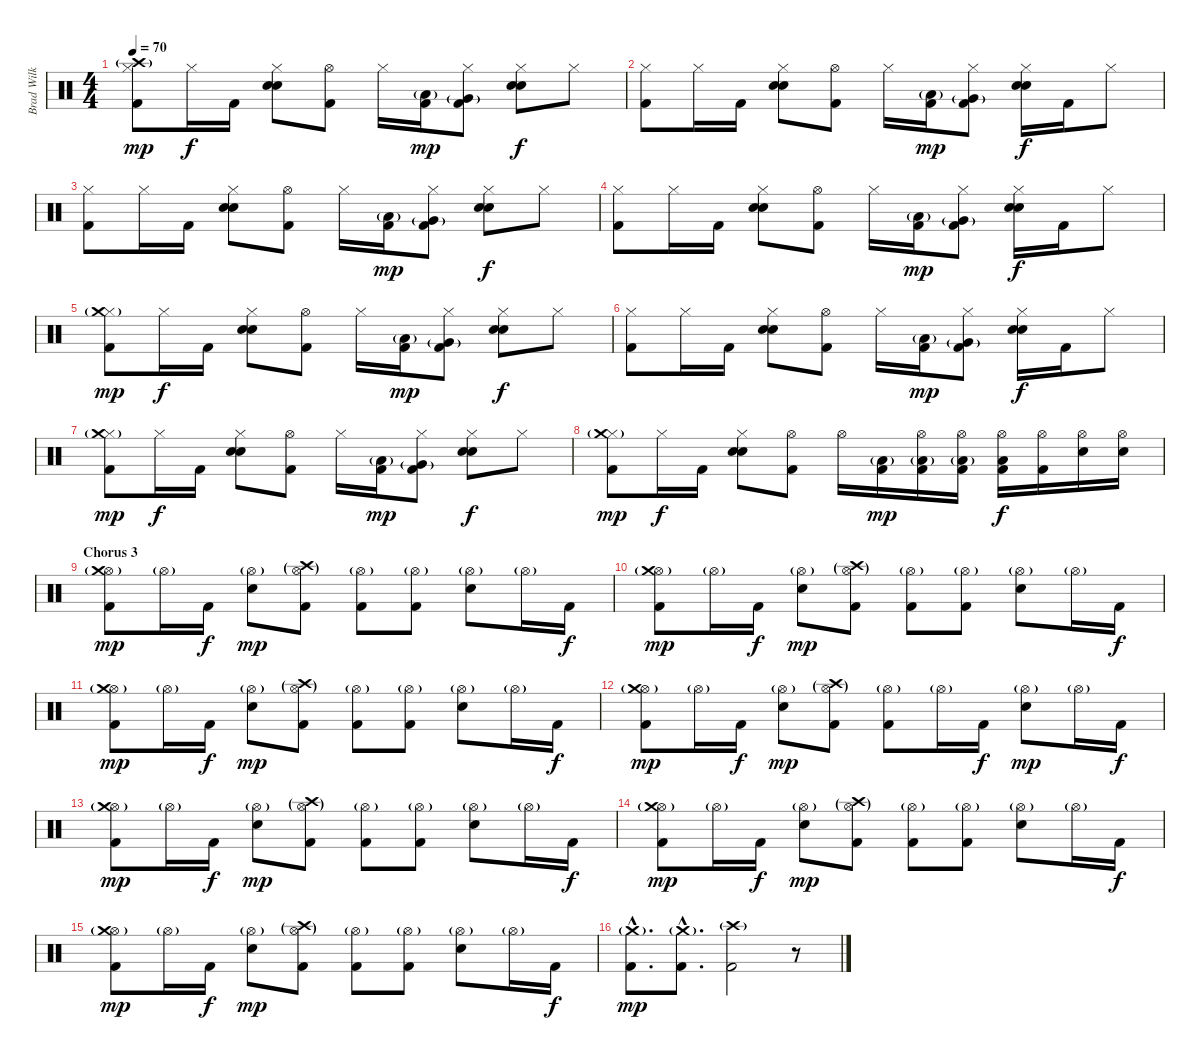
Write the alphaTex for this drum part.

\track ("Brad Wilk (percussion)" "Brad Wilk ") {instrument percussion}
\staff {score}
\articulation defaults
\ts (4 4)
\tempo 70
\clef neutral
\ks c
("Hi-Hat (closed)" "Crash high (hit)"{g} "Kick (hit) 2").8{dy mp} "Hi-Hat (closed)".16{dy f} "Kick (hit) 2".16 ("Hi-Hat (closed)" "Electric Snare (hit)" "Electric Snare (hit)").8 ("Hi-Hat (open)" "Kick (hit) 2").8 "Hi-Hat (closed)".16 ("Low Floor Tom (hit)"{g} "Kick (hit) 2").16{dy mp} ("Hi-Hat (closed)" "Very Low Tom (hit)"{g} "Kick (hit) 2").8 ("Hi-Hat (closed)" "Electric Snare (hit)" "Electric Snare (hit)").8{dy f} "Hi-Hat (closed)".8 |
("Hi-Hat (closed)" "Kick (hit) 2").8 "Hi-Hat (closed)".16 "Kick (hit) 2".16 ("Hi-Hat (closed)" "Electric Snare (hit)" "Electric Snare (hit)").8 ("Hi-Hat (open)" "Kick (hit) 2").8 "Hi-Hat (closed)".16 ("Low Floor Tom (hit)"{g} "Kick (hit) 2").16{dy mp} ("Hi-Hat (closed)" "Very Low Tom (hit)"{g} "Kick (hit) 2").8 ("Hi-Hat (closed)" "Electric Snare (hit)" "Electric Snare (hit)").16{dy f} "Kick (hit) 2".16 "Hi-Hat (closed)".8 |
("Hi-Hat (closed)" "Kick (hit) 2").8 "Hi-Hat (closed)".16 "Kick (hit) 2".16 ("Hi-Hat (closed)" "Electric Snare (hit)" "Electric Snare (hit)").8 ("Hi-Hat (open)" "Kick (hit) 2").8 "Hi-Hat (closed)".16 ("Low Floor Tom (hit)"{g} "Kick (hit) 2").16{dy mp} ("Hi-Hat (closed)" "Very Low Tom (hit)"{g} "Kick (hit) 2").8 ("Hi-Hat (closed)" "Electric Snare (hit)" "Electric Snare (hit)").8{dy f} "Hi-Hat (closed)".8 |
("Hi-Hat (closed)" "Kick (hit) 2").8 "Hi-Hat (closed)".16 "Kick (hit) 2".16 ("Hi-Hat (closed)" "Electric Snare (hit)" "Electric Snare (hit)").8 ("Hi-Hat (open)" "Kick (hit) 2").8 "Hi-Hat (closed)".16 ("Low Floor Tom (hit)"{g} "Kick (hit) 2").16{dy mp} ("Hi-Hat (closed)" "Very Low Tom (hit)"{g} "Kick (hit) 2").8 ("Hi-Hat (closed)" "Electric Snare (hit)" "Electric Snare (hit)").16{dy f} "Kick (hit) 2".16 "Hi-Hat (closed)".8 |
("Hi-Hat (closed)" "Crash medium (hit)"{g} "Kick (hit) 2").8{dy mp} "Hi-Hat (closed)".16{dy f} "Kick (hit) 2".16 ("Hi-Hat (closed)" "Electric Snare (hit)" "Electric Snare (hit)").8 ("Hi-Hat (open)" "Kick (hit) 2").8 "Hi-Hat (closed)".16 ("Low Floor Tom (hit)"{g} "Kick (hit) 2").16{dy mp} ("Hi-Hat (closed)" "Very Low Tom (hit)"{g} "Kick (hit) 2").8 ("Hi-Hat (closed)" "Electric Snare (hit)" "Electric Snare (hit)").8{dy f} "Hi-Hat (closed)".8 |
("Hi-Hat (closed)" "Kick (hit) 2").8 "Hi-Hat (closed)".16 "Kick (hit) 2".16 ("Hi-Hat (closed)" "Electric Snare (hit)" "Electric Snare (hit)").8 ("Hi-Hat (open)" "Kick (hit) 2").8 "Hi-Hat (closed)".16 ("Low Floor Tom (hit)"{g} "Kick (hit) 2").16{dy mp} ("Hi-Hat (closed)" "Very Low Tom (hit)"{g} "Kick (hit) 2").8 ("Hi-Hat (closed)" "Electric Snare (hit)" "Electric Snare (hit)").16{dy f} "Kick (hit) 2".16 "Hi-Hat (closed)".8 |
("Hi-Hat (closed)" "Crash medium (hit)"{g} "Kick (hit) 2").8{dy mp} "Hi-Hat (closed)".16{dy f} "Kick (hit) 2".16 ("Hi-Hat (closed)" "Electric Snare (hit)" "Electric Snare (hit)").8 ("Hi-Hat (open)" "Kick (hit) 2").8 "Hi-Hat (closed)".16 ("Low Floor Tom (hit)"{g} "Kick (hit) 2").16{dy mp} ("Hi-Hat (closed)" "Very Low Tom (hit)"{g} "Kick (hit) 2").8 ("Hi-Hat (closed)" "Electric Snare (hit)" "Electric Snare (hit)").8{dy f} "Hi-Hat (closed)".8 |
("Hi-Hat (closed)" "Crash medium (hit)"{g} "Kick (hit) 2").8{dy mp} "Hi-Hat (closed)".16{dy f} "Kick (hit) 2".16 ("Hi-Hat (closed)" "Electric Snare (hit)" "Electric Snare (hit)").8 ("Hi-Hat (open)" "Kick (hit) 2").8 "Hi-Hat (open)".16 ("Low Floor Tom (hit)"{g} "Kick (hit) 2").16{dy mp} ("Hi-Hat (open)" "Low Floor Tom (hit)"{g} "Kick (hit) 2").16 ("Hi-Hat (open)" "Low Floor Tom (hit)"{g} "Kick (hit) 2").16 ("Hi-Hat (open)" "Low Floor Tom (hit)" "Kick (hit) 2").16{dy f} ("Hi-Hat (open)" "Kick (hit) 2").16 ("Hi-Hat (open)" "Electric Snare (hit)").16 ("Hi-Hat (open)" "Electric Snare (hit)").16 |
\section ("" "Chorus 3")
("Hi-Hat (open)"{g} "Crash medium (hit)" "Kick (hit) 2").8{dy mp volume 16} "Hi-Hat (open)"{g}.16 "Kick (hit) 2".16{dy f} ("Hi-Hat (open)"{g} "Electric Snare (hit)").8{dy mp} ("Hi-Hat (open)"{g} "Crash high (hit)"{g} "Kick (hit) 2").8 ("Hi-Hat (open)"{g} "Kick (hit) 2").8 ("Hi-Hat (open)"{g} "Kick (hit) 2").8 ("Hi-Hat (open)"{g} "Electric Snare (hit)").8 "Hi-Hat (open)"{g}.16 "Kick (hit) 2".16{dy f} |
("Hi-Hat (open)"{g} "Crash medium (hit)" "Kick (hit) 2").8{dy mp} "Hi-Hat (open)"{g}.16 "Kick (hit) 2".16{dy f} ("Hi-Hat (open)"{g} "Electric Snare (hit)").8{dy mp} ("Hi-Hat (open)"{g} "Crash high (hit)"{g} "Kick (hit) 2").8 ("Hi-Hat (open)"{g} "Kick (hit) 2").8 ("Hi-Hat (open)"{g} "Kick (hit) 2").8 ("Hi-Hat (open)"{g} "Electric Snare (hit)").8 "Hi-Hat (open)"{g}.16 "Kick (hit) 2".16{dy f} |
("Hi-Hat (open)"{g} "Crash medium (hit)" "Kick (hit) 2").8{dy mp} "Hi-Hat (open)"{g}.16 "Kick (hit) 2".16{dy f} ("Hi-Hat (open)"{g} "Electric Snare (hit)").8{dy mp} ("Hi-Hat (open)"{g} "Crash high (hit)"{g} "Kick (hit) 2").8 ("Hi-Hat (open)"{g} "Kick (hit) 2").8 ("Hi-Hat (open)"{g} "Kick (hit) 2").8 ("Hi-Hat (open)"{g} "Electric Snare (hit)").8 "Hi-Hat (open)"{g}.16 "Kick (hit) 2".16{dy f} |
("Hi-Hat (open)"{g} "Crash medium (hit)" "Kick (hit) 2").8{dy mp} "Hi-Hat (open)"{g}.16 "Kick (hit) 2".16{dy f} ("Hi-Hat (open)"{g} "Electric Snare (hit)").8{dy mp} ("Hi-Hat (open)"{g} "Crash high (hit)"{g} "Kick (hit) 2").8 ("Hi-Hat (open)"{g} "Kick (hit) 2").8 "Hi-Hat (open)"{g}.16 "Kick (hit) 2".16{dy f} ("Hi-Hat (open)"{g} "Electric Snare (hit)").8{dy mp} "Hi-Hat (open)"{g}.16 "Kick (hit) 2".16{dy f} |
("Hi-Hat (open)"{g} "Crash medium (hit)" "Kick (hit) 2").8{dy mp} "Hi-Hat (open)"{g}.16 "Kick (hit) 2".16{dy f} ("Hi-Hat (open)"{g} "Electric Snare (hit)").8{dy mp} ("Hi-Hat (open)"{g} "Crash high (hit)"{g} "Kick (hit) 2").8 ("Hi-Hat (open)"{g} "Kick (hit) 2").8 ("Hi-Hat (open)"{g} "Kick (hit) 2").8 ("Hi-Hat (open)"{g} "Electric Snare (hit)").8 "Hi-Hat (open)"{g}.16 "Kick (hit) 2".16{dy f} |
("Hi-Hat (open)"{g} "Crash medium (hit)" "Kick (hit) 2").8{dy mp} "Hi-Hat (open)"{g}.16 "Kick (hit) 2".16{dy f} ("Hi-Hat (open)"{g} "Electric Snare (hit)").8{dy mp} ("Hi-Hat (open)"{g} "Crash high (hit)"{g} "Kick (hit) 2").8 ("Hi-Hat (open)"{g} "Kick (hit) 2").8 ("Hi-Hat (open)"{g} "Kick (hit) 2").8 ("Hi-Hat (open)"{g} "Electric Snare (hit)").8 "Hi-Hat (open)"{g}.16 "Kick (hit) 2".16{dy f} |
("Hi-Hat (open)"{g} "Crash medium (hit)" "Kick (hit) 2").8{dy mp} "Hi-Hat (open)"{g}.16 "Kick (hit) 2".16{dy f} ("Hi-Hat (open)"{g} "Electric Snare (hit)").8{dy mp} ("Hi-Hat (open)"{g} "Crash high (hit)"{g} "Kick (hit) 2").8 ("Hi-Hat (open)"{g} "Kick (hit) 2").8 ("Hi-Hat (open)"{g} "Kick (hit) 2").8 ("Hi-Hat (open)"{g} "Electric Snare (hit)").8 "Hi-Hat (open)"{g}.16 "Kick (hit) 2".16{dy f} |
("Crash medium (hit)"{g hac} "Kick (hit) 2"{hac}).8{d dy mp} ("Crash medium (hit)"{g hac} "Kick (hit) 2"{hac}).8{d} ("Crash high (hit)"{g} "Kick (hit) 2").2 r.8
